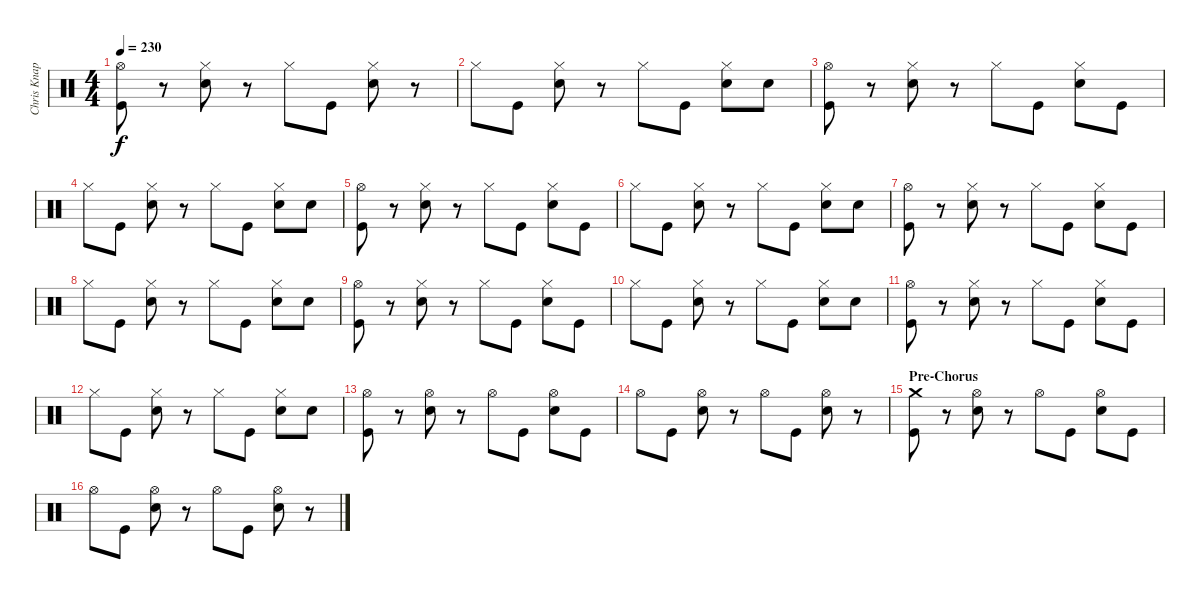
\track ("Chris Knapp" "Chris Knap") {instrument percussion}
\staff {score}
\articulation defaults
\ts (4 4)
\tempo 230
\clef neutral
\ks c
("Hi-Hat (open)" "Kick (hit)").8{dy f} r.8 ("Hi-Hat (closed)" "Electric Snare (hit)").8 r.8 "Hi-Hat (closed)".8 "Kick (hit)".8 ("Hi-Hat (closed)" "Electric Snare (hit)").8 r.8 |
"Hi-Hat (closed)".8 "Kick (hit)".8 ("Hi-Hat (closed)" "Electric Snare (hit)").8 r.8 "Hi-Hat (closed)".8 "Kick (hit)".8 ("Hi-Hat (closed)" "Electric Snare (hit)").8 "Electric Snare (hit)".8 |
("Hi-Hat (open)" "Kick (hit)").8 r.8 ("Hi-Hat (closed)" "Electric Snare (hit)").8 r.8 "Hi-Hat (closed)".8 "Kick (hit)".8 ("Hi-Hat (closed)" "Electric Snare (hit)").8 "Kick (hit)".8 |
"Hi-Hat (closed)".8 "Kick (hit)".8 ("Hi-Hat (closed)" "Electric Snare (hit)").8 r.8 "Hi-Hat (closed)".8 "Kick (hit)".8 ("Hi-Hat (closed)" "Electric Snare (hit)").8 "Electric Snare (hit)".8 |
("Hi-Hat (open)" "Kick (hit)").8 r.8 ("Hi-Hat (closed)" "Electric Snare (hit)").8 r.8 "Hi-Hat (closed)".8 "Kick (hit)".8 ("Hi-Hat (closed)" "Electric Snare (hit)").8 "Kick (hit)".8 |
"Hi-Hat (closed)".8 "Kick (hit)".8 ("Hi-Hat (closed)" "Electric Snare (hit)").8 r.8 "Hi-Hat (closed)".8 "Kick (hit)".8 ("Hi-Hat (closed)" "Electric Snare (hit)").8 "Electric Snare (hit)".8 |
("Hi-Hat (open)" "Kick (hit)").8 r.8 ("Hi-Hat (closed)" "Electric Snare (hit)").8 r.8 "Hi-Hat (closed)".8 "Kick (hit)".8 ("Hi-Hat (closed)" "Electric Snare (hit)").8 "Kick (hit)".8 |
"Hi-Hat (closed)".8 "Kick (hit)".8 ("Hi-Hat (closed)" "Electric Snare (hit)").8 r.8 "Hi-Hat (closed)".8 "Kick (hit)".8 ("Hi-Hat (closed)" "Electric Snare (hit)").8 "Electric Snare (hit)".8 |
("Hi-Hat (open)" "Kick (hit)").8 r.8 ("Hi-Hat (closed)" "Electric Snare (hit)").8 r.8 "Hi-Hat (closed)".8 "Kick (hit)".8 ("Hi-Hat (closed)" "Electric Snare (hit)").8 "Kick (hit)".8 |
"Hi-Hat (closed)".8 "Kick (hit)".8 ("Hi-Hat (closed)" "Electric Snare (hit)").8 r.8 "Hi-Hat (closed)".8 "Kick (hit)".8 ("Hi-Hat (closed)" "Electric Snare (hit)").8 "Electric Snare (hit)".8 |
("Hi-Hat (open)" "Kick (hit)").8 r.8 ("Hi-Hat (closed)" "Electric Snare (hit)").8 r.8 "Hi-Hat (closed)".8 "Kick (hit)".8 ("Hi-Hat (closed)" "Electric Snare (hit)").8 "Kick (hit)".8 |
"Hi-Hat (closed)".8 "Kick (hit)".8 ("Hi-Hat (closed)" "Electric Snare (hit)").8 r.8 "Hi-Hat (closed)".8 "Kick (hit)".8 ("Hi-Hat (closed)" "Electric Snare (hit)").8 "Electric Snare (hit)".8 |
("Hi-Hat (open)" "Kick (hit)").8 r.8 ("Hi-Hat (open)" "Electric Snare (hit)").8 r.8 "Hi-Hat (open)".8 "Kick (hit)".8 ("Hi-Hat (open)" "Electric Snare (hit)").8 "Kick (hit)".8 |
"Hi-Hat (open)".8 "Kick (hit)".8 ("Hi-Hat (open)" "Electric Snare (hit)").8 r.8 "Hi-Hat (open)".8 "Kick (hit)".8 ("Hi-Hat (open)" "Electric Snare (hit)").8 r.8 |
\section ("" "Pre-Chorus")
("Crash medium (hit)" "Kick (hit)").8 r.8 ("Hi-Hat (open)" "Electric Snare (hit)").8 r.8 "Hi-Hat (open)".8 "Kick (hit)".8 ("Hi-Hat (open)" "Electric Snare (hit)").8 "Kick (hit)".8 |
"Hi-Hat (open)".8 "Kick (hit)".8 ("Hi-Hat (open)" "Electric Snare (hit)").8 r.8 "Hi-Hat (open)".8 "Kick (hit)".8 ("Hi-Hat (open)" "Electric Snare (hit)").8 r.8
